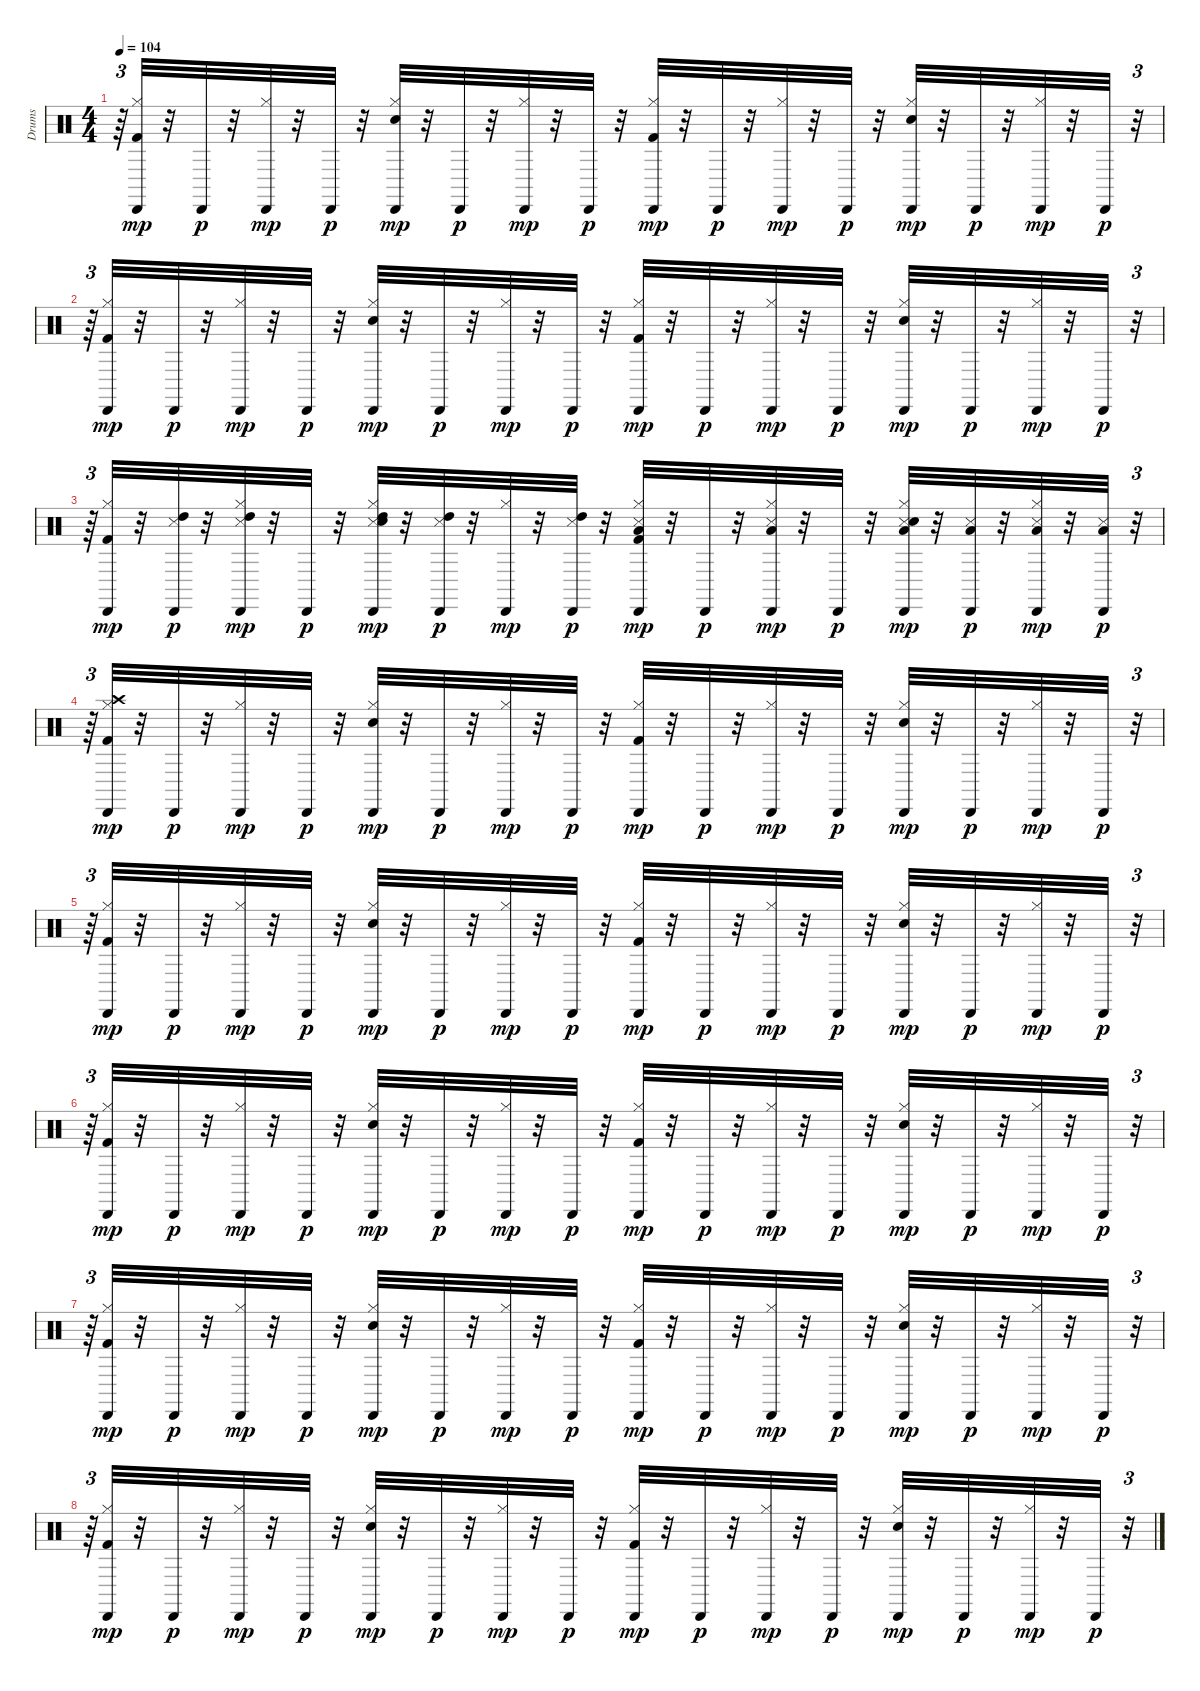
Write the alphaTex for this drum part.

\track ("Drums               " "Drums     ") {instrument percussion}
\staff {score}
\articulation defaults
\ts (4 4)
\tempo 104
\clef neutral
\ks c
r.64{tu (3 2) dy p} ("Kick (hit) 2" "Hi-Hat (closed)" "Cabasa (hit)").32{dy mp} r.32 "Cabasa (hit)".32{dy p} r.32 ("Hi-Hat (closed)" "Cabasa (hit)").32{dy mp} r.32 "Cabasa (hit)".32{dy p} r.32 ("Snare (hit) 2" "Hi-Hat (closed)" "Cabasa (hit)").32{dy mp} r.32 "Cabasa (hit)".32{dy p} r.32 ("Hi-Hat (closed)" "Cabasa (hit)").32{dy mp} r.32 "Cabasa (hit)".32{dy p} r.32 ("Kick (hit) 2" "Hi-Hat (closed)" "Cabasa (hit)").32{dy mp} r.32 "Cabasa (hit)".32{dy p} r.32 ("Hi-Hat (closed)" "Cabasa (hit)").32{dy mp} r.32 "Cabasa (hit)".32{dy p} r.32 ("Snare (hit) 2" "Hi-Hat (closed)" "Cabasa (hit)").32{dy mp} r.32 "Cabasa (hit)".32{dy p} r.32 ("Hi-Hat (closed)" "Cabasa (hit)").32{dy mp} r.32 "Cabasa (hit)".32{dy p} r.32{tu (3 2)} |
r.64{tu (3 2)} ("Kick (hit) 2" "Hi-Hat (closed)" "Cabasa (hit)").32{dy mp} r.32 "Cabasa (hit)".32{dy p} r.32 ("Hi-Hat (closed)" "Cabasa (hit)").32{dy mp} r.32 "Cabasa (hit)".32{dy p} r.32 ("Snare (hit) 2" "Hi-Hat (closed)" "Cabasa (hit)").32{dy mp} r.32 "Cabasa (hit)".32{dy p} r.32 ("Hi-Hat (closed)" "Cabasa (hit)").32{dy mp} r.32 "Cabasa (hit)".32{dy p} r.32 ("Kick (hit) 2" "Hi-Hat (closed)" "Cabasa (hit)").32{dy mp} r.32 "Cabasa (hit)".32{dy p} r.32 ("Hi-Hat (closed)" "Cabasa (hit)").32{dy mp} r.32 "Cabasa (hit)".32{dy p} r.32 ("Snare (hit) 2" "Hi-Hat (closed)" "Cabasa (hit)").32{dy mp} r.32 "Cabasa (hit)".32{dy p} r.32 ("Hi-Hat (closed)" "Cabasa (hit)").32{dy mp} r.32 "Cabasa (hit)".32{dy p} r.32{tu (3 2)} |
r.64{tu (3 2)} ("Kick (hit) 2" "Hi-Hat (closed)" "Cabasa (hit)").32{dy mp} r.32 ("Snare (side stick) 3" "High Tom (hit)" "Cabasa (hit)").32{dy p} r.32 ("Snare (side stick) 3" "Hi-Hat (closed)" "High Tom (hit)" "Cabasa (hit)").32{dy mp} r.32 "Cabasa (hit)".32{dy p} r.32 ("Snare (side stick) 3" "Snare (hit) 2" "Hi-Hat (closed)" "High Tom (hit)" "Cabasa (hit)").32{dy mp} r.32 ("Snare (side stick) 3" "High Tom (hit)" "Cabasa (hit)").32{dy p} r.32 ("Hi-Hat (closed)" "Cabasa (hit)").32{dy mp} r.32 ("Snare (side stick) 3" "High Tom (hit)" "Cabasa (hit)").32{dy p} r.32 ("Kick (hit) 2" "Snare (side stick) 3" "Hi-Hat (closed)" "Low Tom (hit)" "Cabasa (hit)").32{dy mp} r.32 "Cabasa (hit)".32{dy p} r.32 ("Snare (side stick) 3" "Hi-Hat (closed)" "Low Tom (hit)" "Cabasa (hit)").32{dy mp} r.32 "Cabasa (hit)".32{dy p} r.32 ("Snare (side stick) 3" "Snare (hit) 2" "Hi-Hat (closed)" "Low Tom (hit)" "Cabasa (hit)").32{dy mp} r.32 ("Snare (side stick) 3" "Low Tom (hit)" "Cabasa (hit)").32{dy p} r.32 ("Snare (side stick) 3" "Low Floor Tom (hit)" "Hi-Hat (closed)" "Cabasa (hit)").32{dy mp} r.32 ("Snare (side stick) 3" "Low Floor Tom (hit)" "Cabasa (hit)").32{dy p} r.32{tu (3 2)} |
r.64{tu (3 2)} ("Kick (hit) 2" "Hi-Hat (closed)" "Crash high (hit)" "Cabasa (hit)").32{dy mp} r.32 "Cabasa (hit)".32{dy p} r.32 ("Hi-Hat (closed)" "Cabasa (hit)").32{dy mp} r.32 "Cabasa (hit)".32{dy p} r.32 ("Snare (hit) 2" "Hi-Hat (closed)" "Cabasa (hit)").32{dy mp} r.32 "Cabasa (hit)".32{dy p} r.32 ("Hi-Hat (closed)" "Cabasa (hit)").32{dy mp} r.32 "Cabasa (hit)".32{dy p} r.32 ("Kick (hit) 2" "Hi-Hat (closed)" "Cabasa (hit)").32{dy mp} r.32 "Cabasa (hit)".32{dy p} r.32 ("Hi-Hat (closed)" "Cabasa (hit)").32{dy mp} r.32 "Cabasa (hit)".32{dy p} r.32 ("Snare (hit) 2" "Hi-Hat (closed)" "Cabasa (hit)").32{dy mp} r.32 "Cabasa (hit)".32{dy p} r.32 ("Hi-Hat (closed)" "Cabasa (hit)").32{dy mp} r.32 "Cabasa (hit)".32{dy p} r.32{tu (3 2)} |
r.64{tu (3 2)} ("Kick (hit) 2" "Hi-Hat (closed)" "Cabasa (hit)").32{dy mp} r.32 "Cabasa (hit)".32{dy p} r.32 ("Hi-Hat (closed)" "Cabasa (hit)").32{dy mp} r.32 "Cabasa (hit)".32{dy p} r.32 ("Snare (hit) 2" "Hi-Hat (closed)" "Cabasa (hit)").32{dy mp} r.32 "Cabasa (hit)".32{dy p} r.32 ("Hi-Hat (closed)" "Cabasa (hit)").32{dy mp} r.32 "Cabasa (hit)".32{dy p} r.32 ("Kick (hit) 2" "Hi-Hat (closed)" "Cabasa (hit)").32{dy mp} r.32 "Cabasa (hit)".32{dy p} r.32 ("Hi-Hat (closed)" "Cabasa (hit)").32{dy mp} r.32 "Cabasa (hit)".32{dy p} r.32 ("Snare (hit) 2" "Hi-Hat (closed)" "Cabasa (hit)").32{dy mp} r.32 "Cabasa (hit)".32{dy p} r.32 ("Hi-Hat (closed)" "Cabasa (hit)").32{dy mp} r.32 "Cabasa (hit)".32{dy p} r.32{tu (3 2)} |
r.64{tu (3 2)} ("Kick (hit) 2" "Hi-Hat (closed)" "Cabasa (hit)").32{dy mp} r.32 "Cabasa (hit)".32{dy p} r.32 ("Hi-Hat (closed)" "Cabasa (hit)").32{dy mp} r.32 "Cabasa (hit)".32{dy p} r.32 ("Snare (hit) 2" "Hi-Hat (closed)" "Cabasa (hit)").32{dy mp} r.32 "Cabasa (hit)".32{dy p} r.32 ("Hi-Hat (closed)" "Cabasa (hit)").32{dy mp} r.32 "Cabasa (hit)".32{dy p} r.32 ("Kick (hit) 2" "Hi-Hat (closed)" "Cabasa (hit)").32{dy mp} r.32 "Cabasa (hit)".32{dy p} r.32 ("Hi-Hat (closed)" "Cabasa (hit)").32{dy mp} r.32 "Cabasa (hit)".32{dy p} r.32 ("Snare (hit) 2" "Hi-Hat (closed)" "Cabasa (hit)").32{dy mp} r.32 "Cabasa (hit)".32{dy p} r.32 ("Hi-Hat (closed)" "Cabasa (hit)").32{dy mp} r.32 "Cabasa (hit)".32{dy p} r.32{tu (3 2)} |
r.64{tu (3 2)} ("Kick (hit) 2" "Hi-Hat (closed)" "Cabasa (hit)").32{dy mp} r.32 "Cabasa (hit)".32{dy p} r.32 ("Hi-Hat (closed)" "Cabasa (hit)").32{dy mp} r.32 "Cabasa (hit)".32{dy p} r.32 ("Snare (hit) 2" "Hi-Hat (closed)" "Cabasa (hit)").32{dy mp} r.32 "Cabasa (hit)".32{dy p} r.32 ("Hi-Hat (closed)" "Cabasa (hit)").32{dy mp} r.32 "Cabasa (hit)".32{dy p} r.32 ("Kick (hit) 2" "Hi-Hat (closed)" "Cabasa (hit)").32{dy mp} r.32 "Cabasa (hit)".32{dy p} r.32 ("Hi-Hat (closed)" "Cabasa (hit)").32{dy mp} r.32 "Cabasa (hit)".32{dy p} r.32 ("Snare (hit) 2" "Hi-Hat (closed)" "Cabasa (hit)").32{dy mp} r.32 "Cabasa (hit)".32{dy p} r.32 ("Hi-Hat (closed)" "Cabasa (hit)").32{dy mp} r.32 "Cabasa (hit)".32{dy p} r.32{tu (3 2)} |
r.64{tu (3 2)} ("Kick (hit) 2" "Hi-Hat (closed)" "Cabasa (hit)").32{dy mp} r.32 "Cabasa (hit)".32{dy p} r.32 ("Hi-Hat (closed)" "Cabasa (hit)").32{dy mp} r.32 "Cabasa (hit)".32{dy p} r.32 ("Snare (hit) 2" "Hi-Hat (closed)" "Cabasa (hit)").32{dy mp} r.32 "Cabasa (hit)".32{dy p} r.32 ("Hi-Hat (closed)" "Cabasa (hit)").32{dy mp} r.32 "Cabasa (hit)".32{dy p} r.32 ("Kick (hit) 2" "Hi-Hat (closed)" "Cabasa (hit)").32{dy mp} r.32 "Cabasa (hit)".32{dy p} r.32 ("Hi-Hat (closed)" "Cabasa (hit)").32{dy mp} r.32 "Cabasa (hit)".32{dy p} r.32 ("Snare (hit) 2" "Hi-Hat (closed)" "Cabasa (hit)").32{dy mp} r.32 "Cabasa (hit)".32{dy p} r.32 ("Hi-Hat (closed)" "Cabasa (hit)").32{dy mp} r.32 "Cabasa (hit)".32{dy p} r.32{tu (3 2)}
